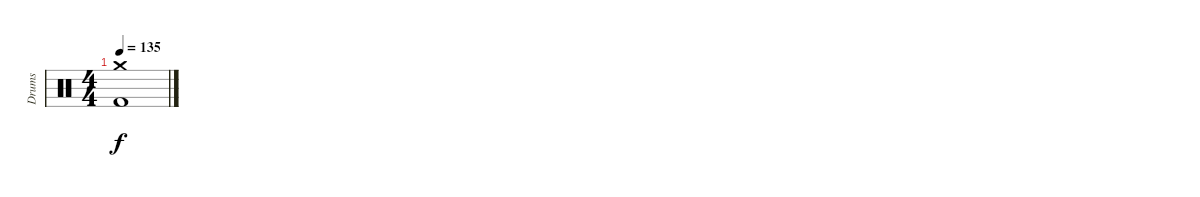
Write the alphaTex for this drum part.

\track ("Drums" "Drums") {instrument percussion}
\staff {score}
\articulation defaults
\ts (4 4)
\tempo 135
\clef neutral
\ks c
("Crash medium (hit)" "Kick (hit) 2").1{dy f}
